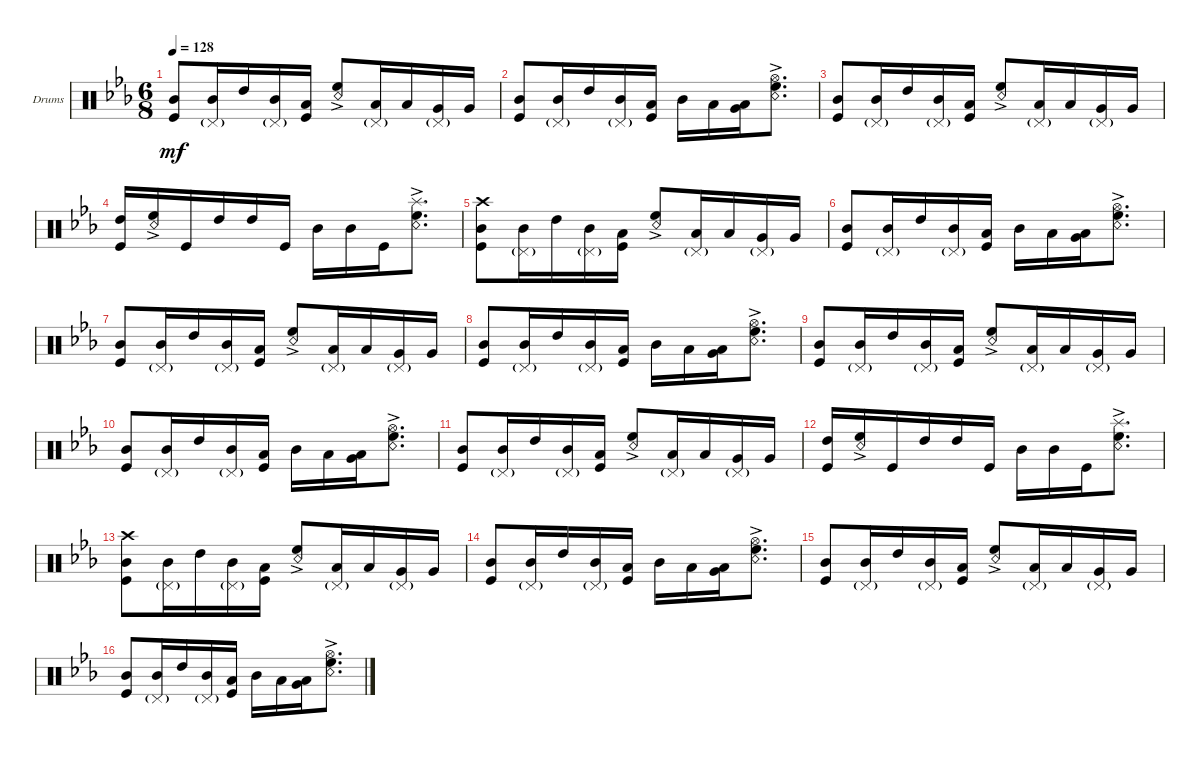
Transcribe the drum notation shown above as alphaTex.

\bracketExtendMode groupsimilarinstruments
\firstSystemTrackNameOrientation horizontal
\otherSystemsTrackNameOrientation horizontal
\track ("Drumkit" "Drums") {instrument percussion}
\staff {score}
\articulation defaults
\ts (6 8)
\tempo 128
\clef neutral
\ks cminor
("Kick (hit)" "Mid Tom (hit)").8{dy mf} ("Mid Tom (hit)" "Pedal Hi-Hat (hit)"{g}).16 "High Tom (hit)".16 ("Mid Tom (hit)" "Pedal Hi-Hat (hit)"{g}).16 ("Low Tom (hit)" "Kick (hit)").16 ("High Floor Tom (hit)"{ac} "Snare (rim shot)").8 ("Low Tom (hit)" "Pedal Hi-Hat (hit)"{g}).16 "Low Tom (hit)".16 ("Very Low Tom (hit)" "Pedal Hi-Hat (hit)"{g}).16 "Very Low Tom (hit)".16 |
("Kick (hit)" "Mid Tom (hit)").8 ("Mid Tom (hit)" "Pedal Hi-Hat (hit)"{g}).16 "High Tom (hit)".16 ("Mid Tom (hit)" "Pedal Hi-Hat (hit)"{g}).16 ("Low Tom (hit)" "Kick (hit)").16 "Mid Tom (hit)".16 "Low Tom (hit)".16 ("Very Low Tom (hit)" "Low Tom (hit)").16 ("High Floor Tom (hit)"{ac} "Hi-Hat (open)" "Snare (rim shot)").8{d} |
("Kick (hit)" "Mid Tom (hit)").8 ("Mid Tom (hit)" "Pedal Hi-Hat (hit)"{g}).16 "High Tom (hit)".16 ("Mid Tom (hit)" "Pedal Hi-Hat (hit)"{g}).16 ("Low Tom (hit)" "Kick (hit)").16 ("High Floor Tom (hit)"{ac} "Snare (rim shot)").8 ("Low Tom (hit)" "Pedal Hi-Hat (hit)"{g}).16 "Low Tom (hit)".16 ("Very Low Tom (hit)" "Pedal Hi-Hat (hit)"{g}).16 "Very Low Tom (hit)".16 |
("Kick (hit)" "High Tom (hit)").16 ("High Floor Tom (hit)"{ac} "Snare (rim shot)").16 "Kick (hit)".16 "High Tom (hit)".16 "High Tom (hit)".16 "Kick (hit)".16 "Mid Tom (hit)".16 "Mid Tom (hit)".16 "Kick (hit)".16 ("High Floor Tom (hit)"{ac} "Splash (hit)" "Snare (rim shot)").8{d} |
("Kick (hit)" "Mid Tom (hit)" "Crash high (hit)").8 ("Mid Tom (hit)" "Pedal Hi-Hat (hit)"{g}).16 "High Tom (hit)".16 ("Mid Tom (hit)" "Pedal Hi-Hat (hit)"{g}).16 ("Low Tom (hit)" "Kick (hit)").16 ("High Floor Tom (hit)"{ac} "Snare (rim shot)").8 ("Low Tom (hit)" "Pedal Hi-Hat (hit)"{g}).16 "Low Tom (hit)".16 ("Very Low Tom (hit)" "Pedal Hi-Hat (hit)"{g}).16 "Very Low Tom (hit)".16 |
("Kick (hit)" "Mid Tom (hit)").8 ("Mid Tom (hit)" "Pedal Hi-Hat (hit)"{g}).16 "High Tom (hit)".16 ("Mid Tom (hit)" "Pedal Hi-Hat (hit)"{g}).16 ("Low Tom (hit)" "Kick (hit)").16 "Mid Tom (hit)".16 "Low Tom (hit)".16 ("Very Low Tom (hit)" "Low Tom (hit)").16 ("High Floor Tom (hit)"{ac} "Hi-Hat (open)" "Snare (rim shot)").8{d} |
("Kick (hit)" "Mid Tom (hit)").8 ("Mid Tom (hit)" "Pedal Hi-Hat (hit)"{g}).16 "High Tom (hit)".16 ("Mid Tom (hit)" "Pedal Hi-Hat (hit)"{g}).16 ("Low Tom (hit)" "Kick (hit)").16 ("High Floor Tom (hit)"{ac} "Snare (rim shot)").8 ("Low Tom (hit)" "Pedal Hi-Hat (hit)"{g}).16 "Low Tom (hit)".16 ("Very Low Tom (hit)" "Pedal Hi-Hat (hit)"{g}).16 "Very Low Tom (hit)".16 |
("Kick (hit)" "Mid Tom (hit)").8 ("Mid Tom (hit)" "Pedal Hi-Hat (hit)"{g}).16 "High Tom (hit)".16 ("Mid Tom (hit)" "Pedal Hi-Hat (hit)"{g}).16 ("Low Tom (hit)" "Kick (hit)").16 "Mid Tom (hit)".16 "Low Tom (hit)".16 ("Very Low Tom (hit)" "Low Tom (hit)").16 ("High Floor Tom (hit)"{ac} "Hi-Hat (open)" "Snare (rim shot)").8{d} |
("Kick (hit)" "Mid Tom (hit)").8 ("Mid Tom (hit)" "Pedal Hi-Hat (hit)"{g}).16 "High Tom (hit)".16 ("Mid Tom (hit)" "Pedal Hi-Hat (hit)"{g}).16 ("Low Tom (hit)" "Kick (hit)").16 ("High Floor Tom (hit)"{ac} "Snare (rim shot)").8 ("Low Tom (hit)" "Pedal Hi-Hat (hit)"{g}).16 "Low Tom (hit)".16 ("Very Low Tom (hit)" "Pedal Hi-Hat (hit)"{g}).16 "Very Low Tom (hit)".16 |
("Kick (hit)" "Mid Tom (hit)").8 ("Mid Tom (hit)" "Pedal Hi-Hat (hit)"{g}).16 "High Tom (hit)".16 ("Mid Tom (hit)" "Pedal Hi-Hat (hit)"{g}).16 ("Low Tom (hit)" "Kick (hit)").16 "Mid Tom (hit)".16 "Low Tom (hit)".16 ("Very Low Tom (hit)" "Low Tom (hit)").16 ("High Floor Tom (hit)"{ac} "Hi-Hat (open)" "Snare (rim shot)").8{d} |
("Kick (hit)" "Mid Tom (hit)").8 ("Mid Tom (hit)" "Pedal Hi-Hat (hit)"{g}).16 "High Tom (hit)".16 ("Mid Tom (hit)" "Pedal Hi-Hat (hit)"{g}).16 ("Low Tom (hit)" "Kick (hit)").16 ("High Floor Tom (hit)"{ac} "Snare (rim shot)").8 ("Low Tom (hit)" "Pedal Hi-Hat (hit)"{g}).16 "Low Tom (hit)".16 ("Very Low Tom (hit)" "Pedal Hi-Hat (hit)"{g}).16 "Very Low Tom (hit)".16 |
("Kick (hit)" "High Tom (hit)").16 ("High Floor Tom (hit)"{ac} "Snare (rim shot)").16 "Kick (hit)".16 "High Tom (hit)".16 "High Tom (hit)".16 "Kick (hit)".16 "Mid Tom (hit)".16 "Mid Tom (hit)".16 "Kick (hit)".16 ("High Floor Tom (hit)"{ac} "Splash (hit)" "Snare (rim shot)").8{d} |
("Kick (hit)" "Mid Tom (hit)" "Crash high (hit)").8 ("Mid Tom (hit)" "Pedal Hi-Hat (hit)"{g}).16 "High Tom (hit)".16 ("Mid Tom (hit)" "Pedal Hi-Hat (hit)"{g}).16 ("Low Tom (hit)" "Kick (hit)").16 ("High Floor Tom (hit)"{ac} "Snare (rim shot)").8 ("Low Tom (hit)" "Pedal Hi-Hat (hit)"{g}).16 "Low Tom (hit)".16 ("Very Low Tom (hit)" "Pedal Hi-Hat (hit)"{g}).16 "Very Low Tom (hit)".16 |
("Kick (hit)" "Mid Tom (hit)").8 ("Mid Tom (hit)" "Pedal Hi-Hat (hit)"{g}).16 "High Tom (hit)".16 ("Mid Tom (hit)" "Pedal Hi-Hat (hit)"{g}).16 ("Low Tom (hit)" "Kick (hit)").16 "Mid Tom (hit)".16 "Low Tom (hit)".16 ("Very Low Tom (hit)" "Low Tom (hit)").16 ("High Floor Tom (hit)"{ac} "Hi-Hat (open)" "Snare (rim shot)").8{d} |
("Kick (hit)" "Mid Tom (hit)").8 ("Mid Tom (hit)" "Pedal Hi-Hat (hit)"{g}).16 "High Tom (hit)".16 ("Mid Tom (hit)" "Pedal Hi-Hat (hit)"{g}).16 ("Low Tom (hit)" "Kick (hit)").16 ("High Floor Tom (hit)"{ac} "Snare (rim shot)").8 ("Low Tom (hit)" "Pedal Hi-Hat (hit)"{g}).16 "Low Tom (hit)".16 ("Very Low Tom (hit)" "Pedal Hi-Hat (hit)"{g}).16 "Very Low Tom (hit)".16 |
("Kick (hit)" "Mid Tom (hit)").8 ("Mid Tom (hit)" "Pedal Hi-Hat (hit)"{g}).16 "High Tom (hit)".16 ("Mid Tom (hit)" "Pedal Hi-Hat (hit)"{g}).16 ("Low Tom (hit)" "Kick (hit)").16 "Mid Tom (hit)".16 "Low Tom (hit)".16 ("Very Low Tom (hit)" "Low Tom (hit)").16 ("High Floor Tom (hit)"{ac} "Hi-Hat (open)" "Snare (rim shot)").8{d}
